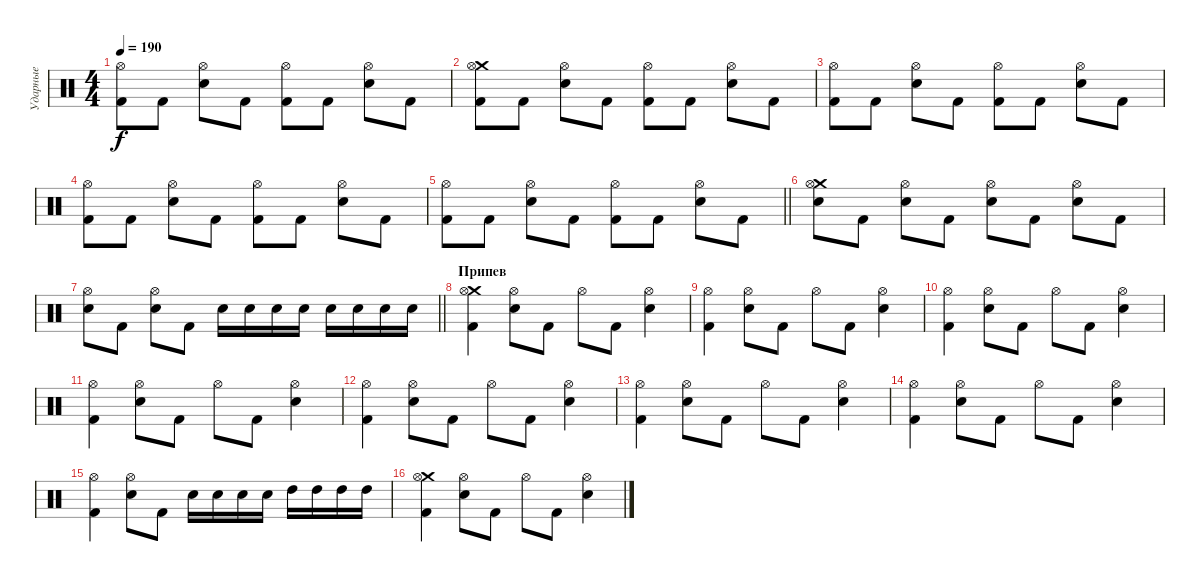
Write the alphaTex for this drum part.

\track ("Ударные" "Ударные") {instrument percussion}
\staff {score}
\articulation defaults
\ts (4 4)
\tempo 190
\clef neutral
\ks c
("Kick (hit) 2" "Hi-Hat (open)").8{dy f} "Kick (hit) 2".8 ("Electric Snare (hit)" "Hi-Hat (open)").8 "Kick (hit) 2".8 ("Kick (hit) 2" "Hi-Hat (open)").8 "Kick (hit) 2".8 ("Electric Snare (hit)" "Hi-Hat (open)").8 "Kick (hit) 2".8 |
("Crash medium (hit)" "Kick (hit) 2" "Hi-Hat (open)").8 "Kick (hit) 2".8 ("Electric Snare (hit)" "Hi-Hat (open)").8 "Kick (hit) 2".8 ("Kick (hit) 2" "Hi-Hat (open)").8 "Kick (hit) 2".8 ("Electric Snare (hit)" "Hi-Hat (open)").8 "Kick (hit) 2".8 |
("Kick (hit) 2" "Hi-Hat (open)").8 "Kick (hit) 2".8 ("Electric Snare (hit)" "Hi-Hat (open)").8 "Kick (hit) 2".8 ("Kick (hit) 2" "Hi-Hat (open)").8 "Kick (hit) 2".8 ("Electric Snare (hit)" "Hi-Hat (open)").8 "Kick (hit) 2".8 |
("Kick (hit) 2" "Hi-Hat (open)").8 "Kick (hit) 2".8 ("Electric Snare (hit)" "Hi-Hat (open)").8 "Kick (hit) 2".8 ("Kick (hit) 2" "Hi-Hat (open)").8 "Kick (hit) 2".8 ("Electric Snare (hit)" "Hi-Hat (open)").8 "Kick (hit) 2".8 |
\barLineRight lightlight
("Kick (hit) 2" "Hi-Hat (open)").8 "Kick (hit) 2".8 ("Electric Snare (hit)" "Hi-Hat (open)").8 "Kick (hit) 2".8 ("Kick (hit) 2" "Hi-Hat (open)").8 "Kick (hit) 2".8 ("Electric Snare (hit)" "Hi-Hat (open)").8 "Kick (hit) 2".8 |
\section ("" "")
("Crash medium (hit)" "Electric Snare (hit)" "Hi-Hat (open)").8 "Kick (hit) 2".8 ("Electric Snare (hit)" "Hi-Hat (open)").8 "Kick (hit) 2".8 ("Electric Snare (hit)" "Hi-Hat (open)").8 "Kick (hit) 2".8 ("Electric Snare (hit)" "Hi-Hat (open)").8 "Kick (hit) 2".8 |
\barLineRight lightlight
("Electric Snare (hit)" "Hi-Hat (open)").8 "Kick (hit) 2".8 ("Electric Snare (hit)" "Hi-Hat (open)").8 "Kick (hit) 2".8 "Electric Snare (hit)".16 "Electric Snare (hit)".16 "Electric Snare (hit)".16 "Electric Snare (hit)".16 "Electric Snare (hit)".16 "Electric Snare (hit)".16 "Electric Snare (hit)".16 "Electric Snare (hit)".16 |
\section ("" "Припев")
("Crash medium (hit)" "Kick (hit) 2" "Hi-Hat (open)").4 ("Electric Snare (hit)" "Hi-Hat (open)").8 "Kick (hit) 2".8 "Hi-Hat (open)".8 "Kick (hit) 2".8 ("Electric Snare (hit)" "Hi-Hat (open)").4 |
("Kick (hit) 2" "Hi-Hat (open)").4 ("Electric Snare (hit)" "Hi-Hat (open)").8 "Kick (hit) 2".8 "Hi-Hat (open)".8 "Kick (hit) 2".8 ("Electric Snare (hit)" "Hi-Hat (open)").4 |
("Kick (hit) 2" "Hi-Hat (open)").4 ("Electric Snare (hit)" "Hi-Hat (open)").8 "Kick (hit) 2".8 "Hi-Hat (open)".8 "Kick (hit) 2".8 ("Electric Snare (hit)" "Hi-Hat (open)").4 |
("Kick (hit) 2" "Hi-Hat (open)").4 ("Electric Snare (hit)" "Hi-Hat (open)").8 "Kick (hit) 2".8 "Hi-Hat (open)".8 "Kick (hit) 2".8 ("Electric Snare (hit)" "Hi-Hat (open)").4 |
("Kick (hit) 2" "Hi-Hat (open)").4 ("Electric Snare (hit)" "Hi-Hat (open)").8 "Kick (hit) 2".8 "Hi-Hat (open)".8 "Kick (hit) 2".8 ("Electric Snare (hit)" "Hi-Hat (open)").4 |
("Kick (hit) 2" "Hi-Hat (open)").4 ("Electric Snare (hit)" "Hi-Hat (open)").8 "Kick (hit) 2".8 "Hi-Hat (open)".8 "Kick (hit) 2".8 ("Electric Snare (hit)" "Hi-Hat (open)").4 |
("Kick (hit) 2" "Hi-Hat (open)").4 ("Electric Snare (hit)" "Hi-Hat (open)").8 "Kick (hit) 2".8 "Hi-Hat (open)".8 "Kick (hit) 2".8 ("Electric Snare (hit)" "Hi-Hat (open)").4 |
("Kick (hit) 2" "Hi-Hat (open)").4 ("Electric Snare (hit)" "Hi-Hat (open)").8 "Kick (hit) 2".8 "Electric Snare (hit)".16 "Electric Snare (hit)".16 "Electric Snare (hit)".16 "Electric Snare (hit)".16 "High Tom (hit)".16 "High Tom (hit)".16 "High Tom (hit)".16 "High Tom (hit)".16 |
("Crash medium (hit)" "Kick (hit) 2" "Hi-Hat (open)").4 ("Electric Snare (hit)" "Hi-Hat (open)").8 "Kick (hit) 2".8 "Hi-Hat (open)".8 "Kick (hit) 2".8 ("Electric Snare (hit)" "Hi-Hat (open)").4
